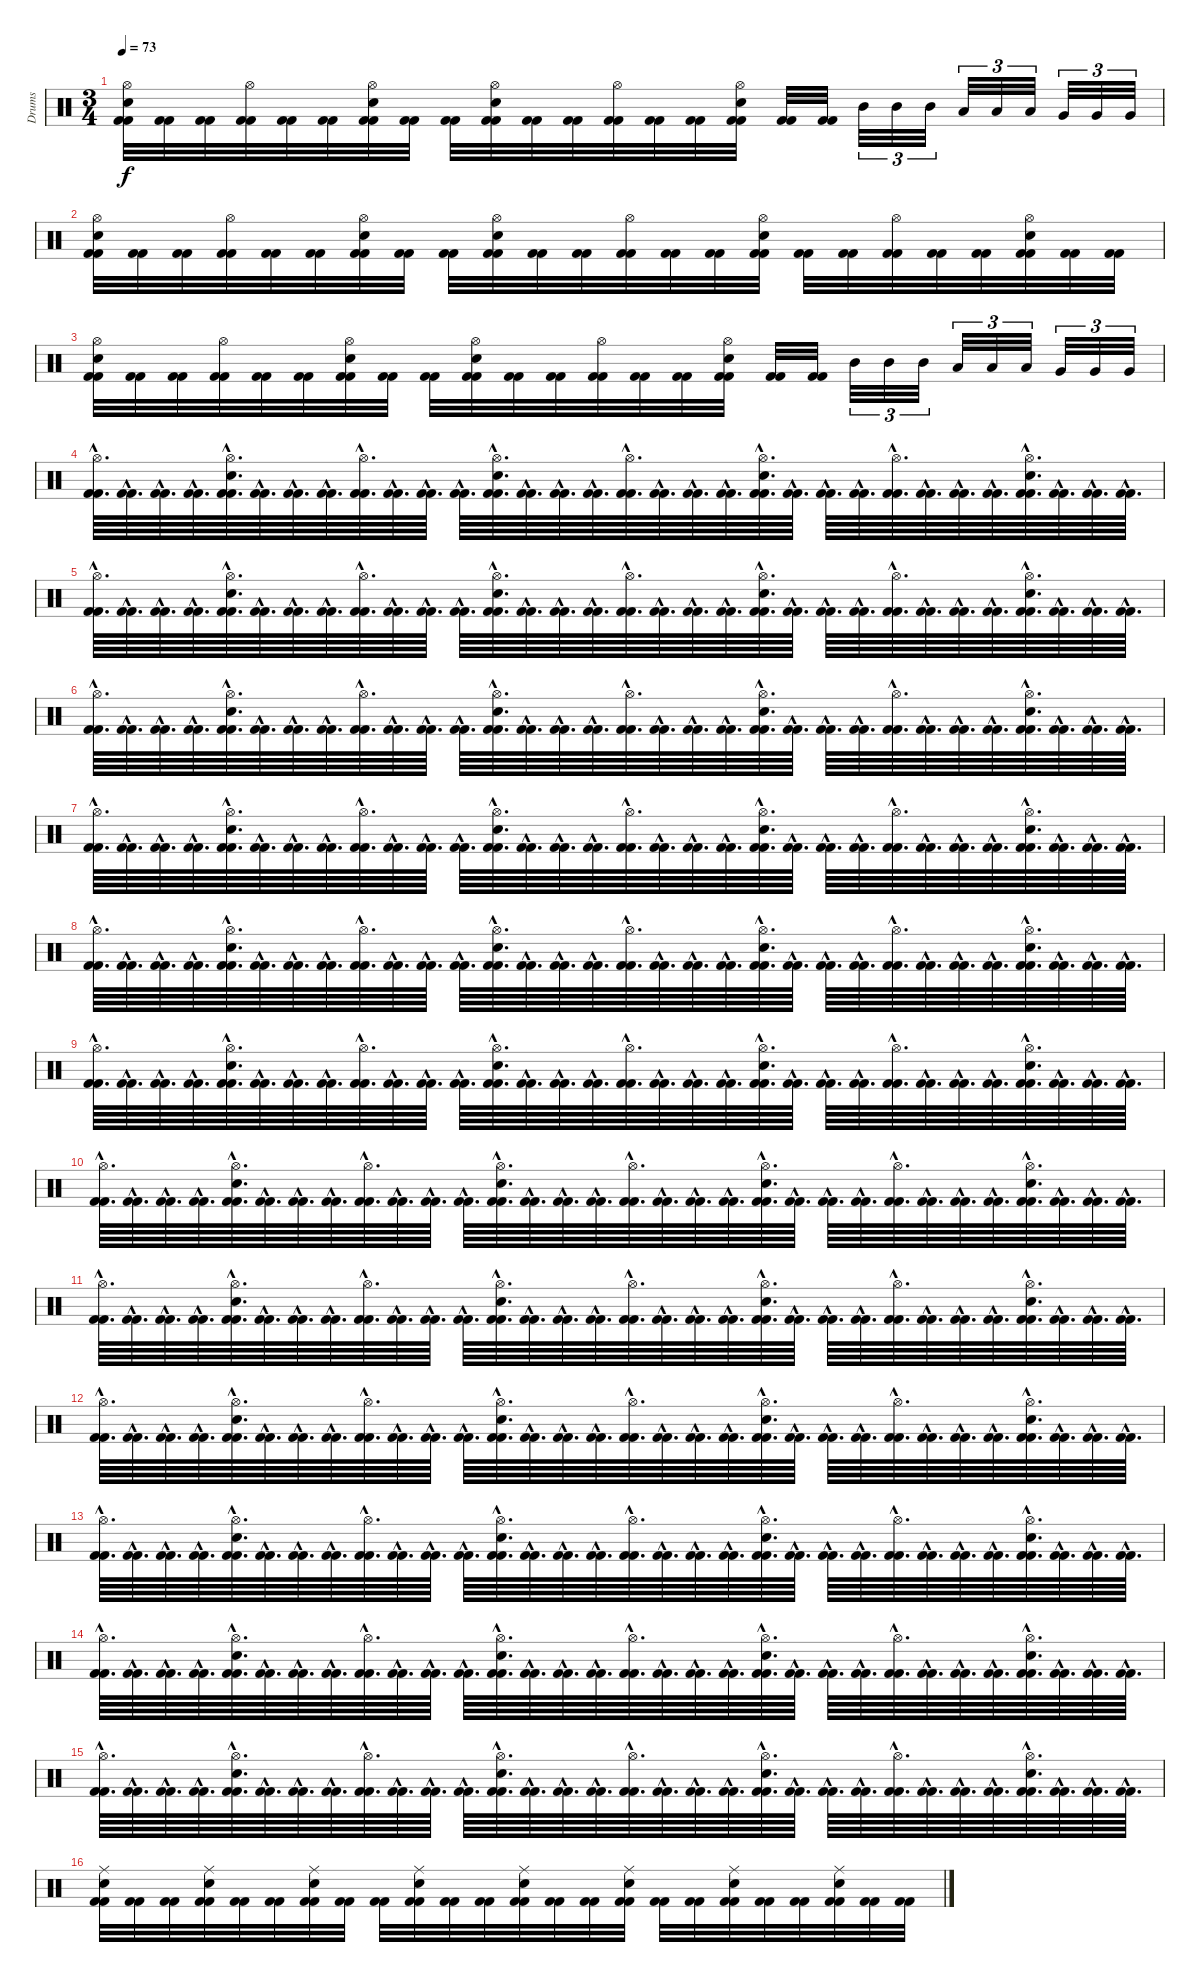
\track ("Drums" "Drums") {instrument percussion}
\staff {score}
\articulation defaults
\ts (3 4)
\tempo 73
\clef neutral
\ks c
("Kick (hit) 2" "Kick (hit) 2" "Electric Snare (hit)" "Hi-Hat (open)").32{dy f} ("Kick (hit) 2" "Kick (hit) 2").32 ("Kick (hit) 2" "Kick (hit) 2").32 ("Kick (hit) 2" "Kick (hit) 2" "Hi-Hat (open)").32 ("Kick (hit) 2" "Kick (hit) 2").32 ("Kick (hit) 2" "Kick (hit) 2").32 ("Kick (hit) 2" "Kick (hit) 2" "Electric Snare (hit)" "Hi-Hat (open)").32 ("Kick (hit) 2" "Kick (hit) 2").32 ("Kick (hit) 2" "Kick (hit) 2").32 ("Kick (hit) 2" "Kick (hit) 2" "Electric Snare (hit)" "Hi-Hat (open)").32 ("Kick (hit) 2" "Kick (hit) 2").32 ("Kick (hit) 2" "Kick (hit) 2").32 ("Kick (hit) 2" "Kick (hit) 2" "Hi-Hat (open)").32 ("Kick (hit) 2" "Kick (hit) 2").32 ("Kick (hit) 2" "Kick (hit) 2").32 ("Kick (hit) 2" "Kick (hit) 2" "Electric Snare (hit)" "Hi-Hat (open)").32 ("Kick (hit) 2" "Kick (hit) 2").32 ("Kick (hit) 2" "Kick (hit) 2").32 "Mid Tom (hit)".32{tu (3 2)} "Mid Tom (hit)".32{tu (3 2)} "Mid Tom (hit)".32{tu (3 2)} "Low Tom (hit)".32{tu (3 2)} "Low Tom (hit)".32{tu (3 2)} "Low Tom (hit)".32{tu (3 2)} "Very Low Tom (hit)".32{tu (3 2)} "Very Low Tom (hit)".32{tu (3 2)} "Very Low Tom (hit)".32{tu (3 2)} |
("Kick (hit) 2" "Kick (hit) 2" "Electric Snare (hit)" "Hi-Hat (open)").32 ("Kick (hit) 2" "Kick (hit) 2").32 ("Kick (hit) 2" "Kick (hit) 2").32 ("Kick (hit) 2" "Kick (hit) 2" "Hi-Hat (open)").32 ("Kick (hit) 2" "Kick (hit) 2").32 ("Kick (hit) 2" "Kick (hit) 2").32 ("Kick (hit) 2" "Kick (hit) 2" "Electric Snare (hit)" "Hi-Hat (open)").32 ("Kick (hit) 2" "Kick (hit) 2").32 ("Kick (hit) 2" "Kick (hit) 2").32 ("Kick (hit) 2" "Kick (hit) 2" "Electric Snare (hit)" "Hi-Hat (open)").32 ("Kick (hit) 2" "Kick (hit) 2").32 ("Kick (hit) 2" "Kick (hit) 2").32 ("Kick (hit) 2" "Kick (hit) 2" "Hi-Hat (open)").32 ("Kick (hit) 2" "Kick (hit) 2").32 ("Kick (hit) 2" "Kick (hit) 2").32 ("Kick (hit) 2" "Kick (hit) 2" "Electric Snare (hit)" "Hi-Hat (open)").32 ("Kick (hit) 2" "Kick (hit) 2").32 ("Kick (hit) 2" "Kick (hit) 2").32 ("Kick (hit) 2" "Kick (hit) 2" "Hi-Hat (open)").32 ("Kick (hit) 2" "Kick (hit) 2").32 ("Kick (hit) 2" "Kick (hit) 2").32 ("Kick (hit) 2" "Kick (hit) 2" "Electric Snare (hit)" "Hi-Hat (open)").32 ("Kick (hit) 2" "Kick (hit) 2").32 ("Kick (hit) 2" "Kick (hit) 2").32 |
("Kick (hit) 2" "Kick (hit) 2" "Electric Snare (hit)" "Hi-Hat (open)").32 ("Kick (hit) 2" "Kick (hit) 2").32 ("Kick (hit) 2" "Kick (hit) 2").32 ("Kick (hit) 2" "Kick (hit) 2" "Hi-Hat (open)").32 ("Kick (hit) 2" "Kick (hit) 2").32 ("Kick (hit) 2" "Kick (hit) 2").32 ("Kick (hit) 2" "Kick (hit) 2" "Electric Snare (hit)" "Hi-Hat (open)").32 ("Kick (hit) 2" "Kick (hit) 2").32 ("Kick (hit) 2" "Kick (hit) 2").32 ("Kick (hit) 2" "Kick (hit) 2" "Electric Snare (hit)" "Hi-Hat (open)").32 ("Kick (hit) 2" "Kick (hit) 2").32 ("Kick (hit) 2" "Kick (hit) 2").32 ("Kick (hit) 2" "Kick (hit) 2" "Hi-Hat (open)").32 ("Kick (hit) 2" "Kick (hit) 2").32 ("Kick (hit) 2" "Kick (hit) 2").32 ("Kick (hit) 2" "Kick (hit) 2" "Electric Snare (hit)" "Hi-Hat (open)").32 ("Kick (hit) 2" "Kick (hit) 2").32 ("Kick (hit) 2" "Kick (hit) 2").32 "Mid Tom (hit)".32{tu (3 2)} "Mid Tom (hit)".32{tu (3 2)} "Mid Tom (hit)".32{tu (3 2)} "Low Tom (hit)".32{tu (3 2)} "Low Tom (hit)".32{tu (3 2)} "Low Tom (hit)".32{tu (3 2)} "Very Low Tom (hit)".32{tu (3 2)} "Very Low Tom (hit)".32{tu (3 2)} "Very Low Tom (hit)".32{tu (3 2)} |
("Kick (hit) 2"{hac} "Kick (hit) 2"{hac} "Hi-Hat (open)"{hac}).64{d} ("Kick (hit) 2"{hac} "Kick (hit) 2"{hac}).64{d} ("Kick (hit) 2"{hac} "Kick (hit) 2"{hac}).64{d} ("Kick (hit) 2"{hac} "Kick (hit) 2"{hac}).64{d} ("Kick (hit) 2"{hac} "Kick (hit) 2"{hac} "Electric Snare (hit)"{hac} "Hi-Hat (open)"{hac}).64{d} ("Kick (hit) 2"{hac} "Kick (hit) 2"{hac}).64{d} ("Kick (hit) 2"{hac} "Kick (hit) 2"{hac}).64{d} ("Kick (hit) 2"{hac} "Kick (hit) 2"{hac}).64{d} ("Kick (hit) 2"{hac} "Kick (hit) 2"{hac} "Hi-Hat (open)"{hac}).64{d} ("Kick (hit) 2"{hac} "Kick (hit) 2"{hac}).64{d} ("Kick (hit) 2"{hac} "Kick (hit) 2"{hac}).64{d} ("Kick (hit) 2"{hac} "Kick (hit) 2"{hac}).64{d} ("Kick (hit) 2"{hac} "Kick (hit) 2"{hac} "Electric Snare (hit)"{hac} "Hi-Hat (open)"{hac}).64{d} ("Kick (hit) 2"{hac} "Kick (hit) 2"{hac}).64{d} ("Kick (hit) 2"{hac} "Kick (hit) 2"{hac}).64{d} ("Kick (hit) 2"{hac} "Kick (hit) 2"{hac}).64{d} ("Kick (hit) 2"{hac} "Kick (hit) 2"{hac} "Hi-Hat (open)"{hac}).64{d} ("Kick (hit) 2"{hac} "Kick (hit) 2"{hac}).64{d} ("Kick (hit) 2"{hac} "Kick (hit) 2"{hac}).64{d} ("Kick (hit) 2"{hac} "Kick (hit) 2"{hac}).64{d} ("Kick (hit) 2"{hac} "Kick (hit) 2"{hac} "Electric Snare (hit)"{hac} "Hi-Hat (open)"{hac}).64{d} ("Kick (hit) 2"{hac} "Kick (hit) 2"{hac}).64{d} ("Kick (hit) 2"{hac} "Kick (hit) 2"{hac}).64{d} ("Kick (hit) 2"{hac} "Kick (hit) 2"{hac}).64{d} ("Kick (hit) 2"{hac} "Kick (hit) 2"{hac} "Hi-Hat (open)"{hac}).64{d} ("Kick (hit) 2"{hac} "Kick (hit) 2"{hac}).64{d} ("Kick (hit) 2"{hac} "Kick (hit) 2"{hac}).64{d} ("Kick (hit) 2"{hac} "Kick (hit) 2"{hac}).64{d} ("Kick (hit) 2"{hac} "Kick (hit) 2"{hac} "Electric Snare (hit)"{hac} "Hi-Hat (open)"{hac}).64{d} ("Kick (hit) 2"{hac} "Kick (hit) 2"{hac}).64{d} ("Kick (hit) 2"{hac} "Kick (hit) 2"{hac}).64{d} ("Kick (hit) 2"{hac} "Kick (hit) 2"{hac}).64{d} |
("Kick (hit) 2"{hac} "Kick (hit) 2"{hac} "Hi-Hat (open)"{hac}).64{d} ("Kick (hit) 2"{hac} "Kick (hit) 2"{hac}).64{d} ("Kick (hit) 2"{hac} "Kick (hit) 2"{hac}).64{d} ("Kick (hit) 2"{hac} "Kick (hit) 2"{hac}).64{d} ("Kick (hit) 2"{hac} "Kick (hit) 2"{hac} "Electric Snare (hit)"{hac} "Hi-Hat (open)"{hac}).64{d} ("Kick (hit) 2"{hac} "Kick (hit) 2"{hac}).64{d} ("Kick (hit) 2"{hac} "Kick (hit) 2"{hac}).64{d} ("Kick (hit) 2"{hac} "Kick (hit) 2"{hac}).64{d} ("Kick (hit) 2"{hac} "Kick (hit) 2"{hac} "Hi-Hat (open)"{hac}).64{d} ("Kick (hit) 2"{hac} "Kick (hit) 2"{hac}).64{d} ("Kick (hit) 2"{hac} "Kick (hit) 2"{hac}).64{d} ("Kick (hit) 2"{hac} "Kick (hit) 2"{hac}).64{d} ("Kick (hit) 2"{hac} "Kick (hit) 2"{hac} "Electric Snare (hit)"{hac} "Hi-Hat (open)"{hac}).64{d} ("Kick (hit) 2"{hac} "Kick (hit) 2"{hac}).64{d} ("Kick (hit) 2"{hac} "Kick (hit) 2"{hac}).64{d} ("Kick (hit) 2"{hac} "Kick (hit) 2"{hac}).64{d} ("Kick (hit) 2"{hac} "Kick (hit) 2"{hac} "Hi-Hat (open)"{hac}).64{d} ("Kick (hit) 2"{hac} "Kick (hit) 2"{hac}).64{d} ("Kick (hit) 2"{hac} "Kick (hit) 2"{hac}).64{d} ("Kick (hit) 2"{hac} "Kick (hit) 2"{hac}).64{d} ("Kick (hit) 2"{hac} "Kick (hit) 2"{hac} "Electric Snare (hit)"{hac} "Hi-Hat (open)"{hac}).64{d} ("Kick (hit) 2"{hac} "Kick (hit) 2"{hac}).64{d} ("Kick (hit) 2"{hac} "Kick (hit) 2"{hac}).64{d} ("Kick (hit) 2"{hac} "Kick (hit) 2"{hac}).64{d} ("Kick (hit) 2"{hac} "Kick (hit) 2"{hac} "Hi-Hat (open)"{hac}).64{d} ("Kick (hit) 2"{hac} "Kick (hit) 2"{hac}).64{d} ("Kick (hit) 2"{hac} "Kick (hit) 2"{hac}).64{d} ("Kick (hit) 2"{hac} "Kick (hit) 2"{hac}).64{d} ("Kick (hit) 2"{hac} "Kick (hit) 2"{hac} "Electric Snare (hit)"{hac} "Hi-Hat (open)"{hac}).64{d} ("Kick (hit) 2"{hac} "Kick (hit) 2"{hac}).64{d} ("Kick (hit) 2"{hac} "Kick (hit) 2"{hac}).64{d} ("Kick (hit) 2"{hac} "Kick (hit) 2"{hac}).64{d} |
("Kick (hit) 2"{hac} "Kick (hit) 2"{hac} "Hi-Hat (open)"{hac}).64{d} ("Kick (hit) 2"{hac} "Kick (hit) 2"{hac}).64{d} ("Kick (hit) 2"{hac} "Kick (hit) 2"{hac}).64{d} ("Kick (hit) 2"{hac} "Kick (hit) 2"{hac}).64{d} ("Kick (hit) 2"{hac} "Kick (hit) 2"{hac} "Electric Snare (hit)"{hac} "Hi-Hat (open)"{hac}).64{d} ("Kick (hit) 2"{hac} "Kick (hit) 2"{hac}).64{d} ("Kick (hit) 2"{hac} "Kick (hit) 2"{hac}).64{d} ("Kick (hit) 2"{hac} "Kick (hit) 2"{hac}).64{d} ("Kick (hit) 2"{hac} "Kick (hit) 2"{hac} "Hi-Hat (open)"{hac}).64{d} ("Kick (hit) 2"{hac} "Kick (hit) 2"{hac}).64{d} ("Kick (hit) 2"{hac} "Kick (hit) 2"{hac}).64{d} ("Kick (hit) 2"{hac} "Kick (hit) 2"{hac}).64{d} ("Kick (hit) 2"{hac} "Kick (hit) 2"{hac} "Electric Snare (hit)"{hac} "Hi-Hat (open)"{hac}).64{d} ("Kick (hit) 2"{hac} "Kick (hit) 2"{hac}).64{d} ("Kick (hit) 2"{hac} "Kick (hit) 2"{hac}).64{d} ("Kick (hit) 2"{hac} "Kick (hit) 2"{hac}).64{d} ("Kick (hit) 2"{hac} "Kick (hit) 2"{hac} "Hi-Hat (open)"{hac}).64{d} ("Kick (hit) 2"{hac} "Kick (hit) 2"{hac}).64{d} ("Kick (hit) 2"{hac} "Kick (hit) 2"{hac}).64{d} ("Kick (hit) 2"{hac} "Kick (hit) 2"{hac}).64{d} ("Kick (hit) 2"{hac} "Kick (hit) 2"{hac} "Electric Snare (hit)"{hac} "Hi-Hat (open)"{hac}).64{d} ("Kick (hit) 2"{hac} "Kick (hit) 2"{hac}).64{d} ("Kick (hit) 2"{hac} "Kick (hit) 2"{hac}).64{d} ("Kick (hit) 2"{hac} "Kick (hit) 2"{hac}).64{d} ("Kick (hit) 2"{hac} "Kick (hit) 2"{hac} "Hi-Hat (open)"{hac}).64{d} ("Kick (hit) 2"{hac} "Kick (hit) 2"{hac}).64{d} ("Kick (hit) 2"{hac} "Kick (hit) 2"{hac}).64{d} ("Kick (hit) 2"{hac} "Kick (hit) 2"{hac}).64{d} ("Kick (hit) 2"{hac} "Kick (hit) 2"{hac} "Electric Snare (hit)"{hac} "Hi-Hat (open)"{hac}).64{d} ("Kick (hit) 2"{hac} "Kick (hit) 2"{hac}).64{d} ("Kick (hit) 2"{hac} "Kick (hit) 2"{hac}).64{d} ("Kick (hit) 2"{hac} "Kick (hit) 2"{hac}).64{d} |
("Kick (hit) 2"{hac} "Kick (hit) 2"{hac} "Hi-Hat (open)"{hac}).64{d} ("Kick (hit) 2"{hac} "Kick (hit) 2"{hac}).64{d} ("Kick (hit) 2"{hac} "Kick (hit) 2"{hac}).64{d} ("Kick (hit) 2"{hac} "Kick (hit) 2"{hac}).64{d} ("Kick (hit) 2"{hac} "Kick (hit) 2"{hac} "Electric Snare (hit)"{hac} "Hi-Hat (open)"{hac}).64{d} ("Kick (hit) 2"{hac} "Kick (hit) 2"{hac}).64{d} ("Kick (hit) 2"{hac} "Kick (hit) 2"{hac}).64{d} ("Kick (hit) 2"{hac} "Kick (hit) 2"{hac}).64{d} ("Kick (hit) 2"{hac} "Kick (hit) 2"{hac} "Hi-Hat (open)"{hac}).64{d} ("Kick (hit) 2"{hac} "Kick (hit) 2"{hac}).64{d} ("Kick (hit) 2"{hac} "Kick (hit) 2"{hac}).64{d} ("Kick (hit) 2"{hac} "Kick (hit) 2"{hac}).64{d} ("Kick (hit) 2"{hac} "Kick (hit) 2"{hac} "Electric Snare (hit)"{hac} "Hi-Hat (open)"{hac}).64{d} ("Kick (hit) 2"{hac} "Kick (hit) 2"{hac}).64{d} ("Kick (hit) 2"{hac} "Kick (hit) 2"{hac}).64{d} ("Kick (hit) 2"{hac} "Kick (hit) 2"{hac}).64{d} ("Kick (hit) 2"{hac} "Kick (hit) 2"{hac} "Hi-Hat (open)"{hac}).64{d} ("Kick (hit) 2"{hac} "Kick (hit) 2"{hac}).64{d} ("Kick (hit) 2"{hac} "Kick (hit) 2"{hac}).64{d} ("Kick (hit) 2"{hac} "Kick (hit) 2"{hac}).64{d} ("Kick (hit) 2"{hac} "Kick (hit) 2"{hac} "Electric Snare (hit)"{hac} "Hi-Hat (open)"{hac}).64{d} ("Kick (hit) 2"{hac} "Kick (hit) 2"{hac}).64{d} ("Kick (hit) 2"{hac} "Kick (hit) 2"{hac}).64{d} ("Kick (hit) 2"{hac} "Kick (hit) 2"{hac}).64{d} ("Kick (hit) 2"{hac} "Kick (hit) 2"{hac} "Hi-Hat (open)"{hac}).64{d} ("Kick (hit) 2"{hac} "Kick (hit) 2"{hac}).64{d} ("Kick (hit) 2"{hac} "Kick (hit) 2"{hac}).64{d} ("Kick (hit) 2"{hac} "Kick (hit) 2"{hac}).64{d} ("Kick (hit) 2"{hac} "Kick (hit) 2"{hac} "Electric Snare (hit)"{hac} "Hi-Hat (open)"{hac}).64{d} ("Kick (hit) 2"{hac} "Kick (hit) 2"{hac}).64{d} ("Kick (hit) 2"{hac} "Kick (hit) 2"{hac}).64{d} ("Kick (hit) 2"{hac} "Kick (hit) 2"{hac}).64{d} |
("Kick (hit) 2"{hac} "Kick (hit) 2"{hac} "Hi-Hat (open)"{hac}).64{d} ("Kick (hit) 2"{hac} "Kick (hit) 2"{hac}).64{d} ("Kick (hit) 2"{hac} "Kick (hit) 2"{hac}).64{d} ("Kick (hit) 2"{hac} "Kick (hit) 2"{hac}).64{d} ("Kick (hit) 2"{hac} "Kick (hit) 2"{hac} "Electric Snare (hit)"{hac} "Hi-Hat (open)"{hac}).64{d} ("Kick (hit) 2"{hac} "Kick (hit) 2"{hac}).64{d} ("Kick (hit) 2"{hac} "Kick (hit) 2"{hac}).64{d} ("Kick (hit) 2"{hac} "Kick (hit) 2"{hac}).64{d} ("Kick (hit) 2"{hac} "Kick (hit) 2"{hac} "Hi-Hat (open)"{hac}).64{d} ("Kick (hit) 2"{hac} "Kick (hit) 2"{hac}).64{d} ("Kick (hit) 2"{hac} "Kick (hit) 2"{hac}).64{d} ("Kick (hit) 2"{hac} "Kick (hit) 2"{hac}).64{d} ("Kick (hit) 2"{hac} "Kick (hit) 2"{hac} "Electric Snare (hit)"{hac} "Hi-Hat (open)"{hac}).64{d} ("Kick (hit) 2"{hac} "Kick (hit) 2"{hac}).64{d} ("Kick (hit) 2"{hac} "Kick (hit) 2"{hac}).64{d} ("Kick (hit) 2"{hac} "Kick (hit) 2"{hac}).64{d} ("Kick (hit) 2"{hac} "Kick (hit) 2"{hac} "Hi-Hat (open)"{hac}).64{d} ("Kick (hit) 2"{hac} "Kick (hit) 2"{hac}).64{d} ("Kick (hit) 2"{hac} "Kick (hit) 2"{hac}).64{d} ("Kick (hit) 2"{hac} "Kick (hit) 2"{hac}).64{d} ("Kick (hit) 2"{hac} "Kick (hit) 2"{hac} "Electric Snare (hit)"{hac} "Hi-Hat (open)"{hac}).64{d} ("Kick (hit) 2"{hac} "Kick (hit) 2"{hac}).64{d} ("Kick (hit) 2"{hac} "Kick (hit) 2"{hac}).64{d} ("Kick (hit) 2"{hac} "Kick (hit) 2"{hac}).64{d} ("Kick (hit) 2"{hac} "Kick (hit) 2"{hac} "Hi-Hat (open)"{hac}).64{d} ("Kick (hit) 2"{hac} "Kick (hit) 2"{hac}).64{d} ("Kick (hit) 2"{hac} "Kick (hit) 2"{hac}).64{d} ("Kick (hit) 2"{hac} "Kick (hit) 2"{hac}).64{d} ("Kick (hit) 2"{hac} "Kick (hit) 2"{hac} "Electric Snare (hit)"{hac} "Hi-Hat (open)"{hac}).64{d} ("Kick (hit) 2"{hac} "Kick (hit) 2"{hac}).64{d} ("Kick (hit) 2"{hac} "Kick (hit) 2"{hac}).64{d} ("Kick (hit) 2"{hac} "Kick (hit) 2"{hac}).64{d} |
("Kick (hit) 2"{hac} "Kick (hit) 2"{hac} "Hi-Hat (open)"{hac}).64{d} ("Kick (hit) 2"{hac} "Kick (hit) 2"{hac}).64{d} ("Kick (hit) 2"{hac} "Kick (hit) 2"{hac}).64{d} ("Kick (hit) 2"{hac} "Kick (hit) 2"{hac}).64{d} ("Kick (hit) 2"{hac} "Kick (hit) 2"{hac} "Electric Snare (hit)"{hac} "Hi-Hat (open)"{hac}).64{d} ("Kick (hit) 2"{hac} "Kick (hit) 2"{hac}).64{d} ("Kick (hit) 2"{hac} "Kick (hit) 2"{hac}).64{d} ("Kick (hit) 2"{hac} "Kick (hit) 2"{hac}).64{d} ("Kick (hit) 2"{hac} "Kick (hit) 2"{hac} "Hi-Hat (open)"{hac}).64{d} ("Kick (hit) 2"{hac} "Kick (hit) 2"{hac}).64{d} ("Kick (hit) 2"{hac} "Kick (hit) 2"{hac}).64{d} ("Kick (hit) 2"{hac} "Kick (hit) 2"{hac}).64{d} ("Kick (hit) 2"{hac} "Kick (hit) 2"{hac} "Electric Snare (hit)"{hac} "Hi-Hat (open)"{hac}).64{d} ("Kick (hit) 2"{hac} "Kick (hit) 2"{hac}).64{d} ("Kick (hit) 2"{hac} "Kick (hit) 2"{hac}).64{d} ("Kick (hit) 2"{hac} "Kick (hit) 2"{hac}).64{d} ("Kick (hit) 2"{hac} "Kick (hit) 2"{hac} "Hi-Hat (open)"{hac}).64{d} ("Kick (hit) 2"{hac} "Kick (hit) 2"{hac}).64{d} ("Kick (hit) 2"{hac} "Kick (hit) 2"{hac}).64{d} ("Kick (hit) 2"{hac} "Kick (hit) 2"{hac}).64{d} ("Kick (hit) 2"{hac} "Kick (hit) 2"{hac} "Electric Snare (hit)"{hac} "Hi-Hat (open)"{hac}).64{d} ("Kick (hit) 2"{hac} "Kick (hit) 2"{hac}).64{d} ("Kick (hit) 2"{hac} "Kick (hit) 2"{hac}).64{d} ("Kick (hit) 2"{hac} "Kick (hit) 2"{hac}).64{d} ("Kick (hit) 2"{hac} "Kick (hit) 2"{hac} "Hi-Hat (open)"{hac}).64{d} ("Kick (hit) 2"{hac} "Kick (hit) 2"{hac}).64{d} ("Kick (hit) 2"{hac} "Kick (hit) 2"{hac}).64{d} ("Kick (hit) 2"{hac} "Kick (hit) 2"{hac}).64{d} ("Kick (hit) 2"{hac} "Kick (hit) 2"{hac} "Electric Snare (hit)"{hac} "Hi-Hat (open)"{hac}).64{d} ("Kick (hit) 2"{hac} "Kick (hit) 2"{hac}).64{d} ("Kick (hit) 2"{hac} "Kick (hit) 2"{hac}).64{d} ("Kick (hit) 2"{hac} "Kick (hit) 2"{hac}).64{d} |
("Kick (hit) 2"{hac} "Kick (hit) 2"{hac} "Hi-Hat (open)"{hac}).64{d} ("Kick (hit) 2"{hac} "Kick (hit) 2"{hac}).64{d} ("Kick (hit) 2"{hac} "Kick (hit) 2"{hac}).64{d} ("Kick (hit) 2"{hac} "Kick (hit) 2"{hac}).64{d} ("Kick (hit) 2"{hac} "Kick (hit) 2"{hac} "Electric Snare (hit)"{hac} "Hi-Hat (open)"{hac}).64{d} ("Kick (hit) 2"{hac} "Kick (hit) 2"{hac}).64{d} ("Kick (hit) 2"{hac} "Kick (hit) 2"{hac}).64{d} ("Kick (hit) 2"{hac} "Kick (hit) 2"{hac}).64{d} ("Kick (hit) 2"{hac} "Kick (hit) 2"{hac} "Hi-Hat (open)"{hac}).64{d} ("Kick (hit) 2"{hac} "Kick (hit) 2"{hac}).64{d} ("Kick (hit) 2"{hac} "Kick (hit) 2"{hac}).64{d} ("Kick (hit) 2"{hac} "Kick (hit) 2"{hac}).64{d} ("Kick (hit) 2"{hac} "Kick (hit) 2"{hac} "Electric Snare (hit)"{hac} "Hi-Hat (open)"{hac}).64{d} ("Kick (hit) 2"{hac} "Kick (hit) 2"{hac}).64{d} ("Kick (hit) 2"{hac} "Kick (hit) 2"{hac}).64{d} ("Kick (hit) 2"{hac} "Kick (hit) 2"{hac}).64{d} ("Kick (hit) 2"{hac} "Kick (hit) 2"{hac} "Hi-Hat (open)"{hac}).64{d} ("Kick (hit) 2"{hac} "Kick (hit) 2"{hac}).64{d} ("Kick (hit) 2"{hac} "Kick (hit) 2"{hac}).64{d} ("Kick (hit) 2"{hac} "Kick (hit) 2"{hac}).64{d} ("Kick (hit) 2"{hac} "Kick (hit) 2"{hac} "Electric Snare (hit)"{hac} "Hi-Hat (open)"{hac}).64{d} ("Kick (hit) 2"{hac} "Kick (hit) 2"{hac}).64{d} ("Kick (hit) 2"{hac} "Kick (hit) 2"{hac}).64{d} ("Kick (hit) 2"{hac} "Kick (hit) 2"{hac}).64{d} ("Kick (hit) 2"{hac} "Kick (hit) 2"{hac} "Hi-Hat (open)"{hac}).64{d} ("Kick (hit) 2"{hac} "Kick (hit) 2"{hac}).64{d} ("Kick (hit) 2"{hac} "Kick (hit) 2"{hac}).64{d} ("Kick (hit) 2"{hac} "Kick (hit) 2"{hac}).64{d} ("Kick (hit) 2"{hac} "Kick (hit) 2"{hac} "Electric Snare (hit)"{hac} "Hi-Hat (open)"{hac}).64{d} ("Kick (hit) 2"{hac} "Kick (hit) 2"{hac}).64{d} ("Kick (hit) 2"{hac} "Kick (hit) 2"{hac}).64{d} ("Kick (hit) 2"{hac} "Kick (hit) 2"{hac}).64{d} |
("Kick (hit) 2"{hac} "Kick (hit) 2"{hac} "Hi-Hat (open)"{hac}).64{d} ("Kick (hit) 2"{hac} "Kick (hit) 2"{hac}).64{d} ("Kick (hit) 2"{hac} "Kick (hit) 2"{hac}).64{d} ("Kick (hit) 2"{hac} "Kick (hit) 2"{hac}).64{d} ("Kick (hit) 2"{hac} "Kick (hit) 2"{hac} "Electric Snare (hit)"{hac} "Hi-Hat (open)"{hac}).64{d} ("Kick (hit) 2"{hac} "Kick (hit) 2"{hac}).64{d} ("Kick (hit) 2"{hac} "Kick (hit) 2"{hac}).64{d} ("Kick (hit) 2"{hac} "Kick (hit) 2"{hac}).64{d} ("Kick (hit) 2"{hac} "Kick (hit) 2"{hac} "Hi-Hat (open)"{hac}).64{d} ("Kick (hit) 2"{hac} "Kick (hit) 2"{hac}).64{d} ("Kick (hit) 2"{hac} "Kick (hit) 2"{hac}).64{d} ("Kick (hit) 2"{hac} "Kick (hit) 2"{hac}).64{d} ("Kick (hit) 2"{hac} "Kick (hit) 2"{hac} "Electric Snare (hit)"{hac} "Hi-Hat (open)"{hac}).64{d} ("Kick (hit) 2"{hac} "Kick (hit) 2"{hac}).64{d} ("Kick (hit) 2"{hac} "Kick (hit) 2"{hac}).64{d} ("Kick (hit) 2"{hac} "Kick (hit) 2"{hac}).64{d} ("Kick (hit) 2"{hac} "Kick (hit) 2"{hac} "Hi-Hat (open)"{hac}).64{d} ("Kick (hit) 2"{hac} "Kick (hit) 2"{hac}).64{d} ("Kick (hit) 2"{hac} "Kick (hit) 2"{hac}).64{d} ("Kick (hit) 2"{hac} "Kick (hit) 2"{hac}).64{d} ("Kick (hit) 2"{hac} "Kick (hit) 2"{hac} "Electric Snare (hit)"{hac} "Hi-Hat (open)"{hac}).64{d} ("Kick (hit) 2"{hac} "Kick (hit) 2"{hac}).64{d} ("Kick (hit) 2"{hac} "Kick (hit) 2"{hac}).64{d} ("Kick (hit) 2"{hac} "Kick (hit) 2"{hac}).64{d} ("Kick (hit) 2"{hac} "Kick (hit) 2"{hac} "Hi-Hat (open)"{hac}).64{d} ("Kick (hit) 2"{hac} "Kick (hit) 2"{hac}).64{d} ("Kick (hit) 2"{hac} "Kick (hit) 2"{hac}).64{d} ("Kick (hit) 2"{hac} "Kick (hit) 2"{hac}).64{d} ("Kick (hit) 2"{hac} "Kick (hit) 2"{hac} "Electric Snare (hit)"{hac} "Hi-Hat (open)"{hac}).64{d} ("Kick (hit) 2"{hac} "Kick (hit) 2"{hac}).64{d} ("Kick (hit) 2"{hac} "Kick (hit) 2"{hac}).64{d} ("Kick (hit) 2"{hac} "Kick (hit) 2"{hac}).64{d} |
("Kick (hit) 2"{hac} "Kick (hit) 2"{hac} "Hi-Hat (open)"{hac}).64{d} ("Kick (hit) 2"{hac} "Kick (hit) 2"{hac}).64{d} ("Kick (hit) 2"{hac} "Kick (hit) 2"{hac}).64{d} ("Kick (hit) 2"{hac} "Kick (hit) 2"{hac}).64{d} ("Kick (hit) 2"{hac} "Kick (hit) 2"{hac} "Electric Snare (hit)"{hac} "Hi-Hat (open)"{hac}).64{d} ("Kick (hit) 2"{hac} "Kick (hit) 2"{hac}).64{d} ("Kick (hit) 2"{hac} "Kick (hit) 2"{hac}).64{d} ("Kick (hit) 2"{hac} "Kick (hit) 2"{hac}).64{d} ("Kick (hit) 2"{hac} "Kick (hit) 2"{hac} "Hi-Hat (open)"{hac}).64{d} ("Kick (hit) 2"{hac} "Kick (hit) 2"{hac}).64{d} ("Kick (hit) 2"{hac} "Kick (hit) 2"{hac}).64{d} ("Kick (hit) 2"{hac} "Kick (hit) 2"{hac}).64{d} ("Kick (hit) 2"{hac} "Kick (hit) 2"{hac} "Electric Snare (hit)"{hac} "Hi-Hat (open)"{hac}).64{d} ("Kick (hit) 2"{hac} "Kick (hit) 2"{hac}).64{d} ("Kick (hit) 2"{hac} "Kick (hit) 2"{hac}).64{d} ("Kick (hit) 2"{hac} "Kick (hit) 2"{hac}).64{d} ("Kick (hit) 2"{hac} "Kick (hit) 2"{hac} "Hi-Hat (open)"{hac}).64{d} ("Kick (hit) 2"{hac} "Kick (hit) 2"{hac}).64{d} ("Kick (hit) 2"{hac} "Kick (hit) 2"{hac}).64{d} ("Kick (hit) 2"{hac} "Kick (hit) 2"{hac}).64{d} ("Kick (hit) 2"{hac} "Kick (hit) 2"{hac} "Electric Snare (hit)"{hac} "Hi-Hat (open)"{hac}).64{d} ("Kick (hit) 2"{hac} "Kick (hit) 2"{hac}).64{d} ("Kick (hit) 2"{hac} "Kick (hit) 2"{hac}).64{d} ("Kick (hit) 2"{hac} "Kick (hit) 2"{hac}).64{d} ("Kick (hit) 2"{hac} "Kick (hit) 2"{hac} "Hi-Hat (open)"{hac}).64{d} ("Kick (hit) 2"{hac} "Kick (hit) 2"{hac}).64{d} ("Kick (hit) 2"{hac} "Kick (hit) 2"{hac}).64{d} ("Kick (hit) 2"{hac} "Kick (hit) 2"{hac}).64{d} ("Kick (hit) 2"{hac} "Kick (hit) 2"{hac} "Electric Snare (hit)"{hac} "Hi-Hat (open)"{hac}).64{d} ("Kick (hit) 2"{hac} "Kick (hit) 2"{hac}).64{d} ("Kick (hit) 2"{hac} "Kick (hit) 2"{hac}).64{d} ("Kick (hit) 2"{hac} "Kick (hit) 2"{hac}).64{d} |
("Kick (hit) 2"{hac} "Kick (hit) 2"{hac} "Hi-Hat (open)"{hac}).64{d} ("Kick (hit) 2"{hac} "Kick (hit) 2"{hac}).64{d} ("Kick (hit) 2"{hac} "Kick (hit) 2"{hac}).64{d} ("Kick (hit) 2"{hac} "Kick (hit) 2"{hac}).64{d} ("Kick (hit) 2"{hac} "Kick (hit) 2"{hac} "Electric Snare (hit)"{hac} "Hi-Hat (open)"{hac}).64{d} ("Kick (hit) 2"{hac} "Kick (hit) 2"{hac}).64{d} ("Kick (hit) 2"{hac} "Kick (hit) 2"{hac}).64{d} ("Kick (hit) 2"{hac} "Kick (hit) 2"{hac}).64{d} ("Kick (hit) 2"{hac} "Kick (hit) 2"{hac} "Hi-Hat (open)"{hac}).64{d} ("Kick (hit) 2"{hac} "Kick (hit) 2"{hac}).64{d} ("Kick (hit) 2"{hac} "Kick (hit) 2"{hac}).64{d} ("Kick (hit) 2"{hac} "Kick (hit) 2"{hac}).64{d} ("Kick (hit) 2"{hac} "Kick (hit) 2"{hac} "Electric Snare (hit)"{hac} "Hi-Hat (open)"{hac}).64{d} ("Kick (hit) 2"{hac} "Kick (hit) 2"{hac}).64{d} ("Kick (hit) 2"{hac} "Kick (hit) 2"{hac}).64{d} ("Kick (hit) 2"{hac} "Kick (hit) 2"{hac}).64{d} ("Kick (hit) 2"{hac} "Kick (hit) 2"{hac} "Hi-Hat (open)"{hac}).64{d} ("Kick (hit) 2"{hac} "Kick (hit) 2"{hac}).64{d} ("Kick (hit) 2"{hac} "Kick (hit) 2"{hac}).64{d} ("Kick (hit) 2"{hac} "Kick (hit) 2"{hac}).64{d} ("Kick (hit) 2"{hac} "Kick (hit) 2"{hac} "Electric Snare (hit)"{hac} "Hi-Hat (open)"{hac}).64{d} ("Kick (hit) 2"{hac} "Kick (hit) 2"{hac}).64{d} ("Kick (hit) 2"{hac} "Kick (hit) 2"{hac}).64{d} ("Kick (hit) 2"{hac} "Kick (hit) 2"{hac}).64{d} ("Kick (hit) 2"{hac} "Kick (hit) 2"{hac} "Hi-Hat (open)"{hac}).64{d} ("Kick (hit) 2"{hac} "Kick (hit) 2"{hac}).64{d} ("Kick (hit) 2"{hac} "Kick (hit) 2"{hac}).64{d} ("Kick (hit) 2"{hac} "Kick (hit) 2"{hac}).64{d} ("Kick (hit) 2"{hac} "Kick (hit) 2"{hac} "Electric Snare (hit)"{hac} "Hi-Hat (open)"{hac}).64{d} ("Kick (hit) 2"{hac} "Kick (hit) 2"{hac}).64{d} ("Kick (hit) 2"{hac} "Kick (hit) 2"{hac}).64{d} ("Kick (hit) 2"{hac} "Kick (hit) 2"{hac}).64{d} |
("Kick (hit) 2"{hac} "Kick (hit) 2"{hac} "Hi-Hat (open)"{hac}).64{d} ("Kick (hit) 2"{hac} "Kick (hit) 2"{hac}).64{d} ("Kick (hit) 2"{hac} "Kick (hit) 2"{hac}).64{d} ("Kick (hit) 2"{hac} "Kick (hit) 2"{hac}).64{d} ("Kick (hit) 2"{hac} "Kick (hit) 2"{hac} "Electric Snare (hit)"{hac} "Hi-Hat (open)"{hac}).64{d} ("Kick (hit) 2"{hac} "Kick (hit) 2"{hac}).64{d} ("Kick (hit) 2"{hac} "Kick (hit) 2"{hac}).64{d} ("Kick (hit) 2"{hac} "Kick (hit) 2"{hac}).64{d} ("Kick (hit) 2"{hac} "Kick (hit) 2"{hac} "Hi-Hat (open)"{hac}).64{d} ("Kick (hit) 2"{hac} "Kick (hit) 2"{hac}).64{d} ("Kick (hit) 2"{hac} "Kick (hit) 2"{hac}).64{d} ("Kick (hit) 2"{hac} "Kick (hit) 2"{hac}).64{d} ("Kick (hit) 2"{hac} "Kick (hit) 2"{hac} "Electric Snare (hit)"{hac} "Hi-Hat (open)"{hac}).64{d} ("Kick (hit) 2"{hac} "Kick (hit) 2"{hac}).64{d} ("Kick (hit) 2"{hac} "Kick (hit) 2"{hac}).64{d} ("Kick (hit) 2"{hac} "Kick (hit) 2"{hac}).64{d} ("Kick (hit) 2"{hac} "Kick (hit) 2"{hac} "Hi-Hat (open)"{hac}).64{d} ("Kick (hit) 2"{hac} "Kick (hit) 2"{hac}).64{d} ("Kick (hit) 2"{hac} "Kick (hit) 2"{hac}).64{d} ("Kick (hit) 2"{hac} "Kick (hit) 2"{hac}).64{d} ("Kick (hit) 2"{hac} "Kick (hit) 2"{hac} "Electric Snare (hit)"{hac} "Hi-Hat (open)"{hac}).64{d} ("Kick (hit) 2"{hac} "Kick (hit) 2"{hac}).64{d} ("Kick (hit) 2"{hac} "Kick (hit) 2"{hac}).64{d} ("Kick (hit) 2"{hac} "Kick (hit) 2"{hac}).64{d} ("Kick (hit) 2"{hac} "Kick (hit) 2"{hac} "Hi-Hat (open)"{hac}).64{d} ("Kick (hit) 2"{hac} "Kick (hit) 2"{hac}).64{d} ("Kick (hit) 2"{hac} "Kick (hit) 2"{hac}).64{d} ("Kick (hit) 2"{hac} "Kick (hit) 2"{hac}).64{d} ("Kick (hit) 2"{hac} "Kick (hit) 2"{hac} "Electric Snare (hit)"{hac} "Hi-Hat (open)"{hac}).64{d} ("Kick (hit) 2"{hac} "Kick (hit) 2"{hac}).64{d} ("Kick (hit) 2"{hac} "Kick (hit) 2"{hac}).64{d} ("Kick (hit) 2"{hac} "Kick (hit) 2"{hac}).64{d} |
("Kick (hit) 2"{hac} "Kick (hit) 2"{hac} "Hi-Hat (open)"{hac}).64{d} ("Kick (hit) 2"{hac} "Kick (hit) 2"{hac}).64{d} ("Kick (hit) 2"{hac} "Kick (hit) 2"{hac}).64{d} ("Kick (hit) 2"{hac} "Kick (hit) 2"{hac}).64{d} ("Kick (hit) 2"{hac} "Kick (hit) 2"{hac} "Electric Snare (hit)"{hac} "Hi-Hat (open)"{hac}).64{d} ("Kick (hit) 2"{hac} "Kick (hit) 2"{hac}).64{d} ("Kick (hit) 2"{hac} "Kick (hit) 2"{hac}).64{d} ("Kick (hit) 2"{hac} "Kick (hit) 2"{hac}).64{d} ("Kick (hit) 2"{hac} "Kick (hit) 2"{hac} "Hi-Hat (open)"{hac}).64{d} ("Kick (hit) 2"{hac} "Kick (hit) 2"{hac}).64{d} ("Kick (hit) 2"{hac} "Kick (hit) 2"{hac}).64{d} ("Kick (hit) 2"{hac} "Kick (hit) 2"{hac}).64{d} ("Kick (hit) 2"{hac} "Kick (hit) 2"{hac} "Electric Snare (hit)"{hac} "Hi-Hat (open)"{hac}).64{d} ("Kick (hit) 2"{hac} "Kick (hit) 2"{hac}).64{d} ("Kick (hit) 2"{hac} "Kick (hit) 2"{hac}).64{d} ("Kick (hit) 2"{hac} "Kick (hit) 2"{hac}).64{d} ("Kick (hit) 2"{hac} "Kick (hit) 2"{hac} "Hi-Hat (open)"{hac}).64{d} ("Kick (hit) 2"{hac} "Kick (hit) 2"{hac}).64{d} ("Kick (hit) 2"{hac} "Kick (hit) 2"{hac}).64{d} ("Kick (hit) 2"{hac} "Kick (hit) 2"{hac}).64{d} ("Kick (hit) 2"{hac} "Kick (hit) 2"{hac} "Electric Snare (hit)"{hac} "Hi-Hat (open)"{hac}).64{d} ("Kick (hit) 2"{hac} "Kick (hit) 2"{hac}).64{d} ("Kick (hit) 2"{hac} "Kick (hit) 2"{hac}).64{d} ("Kick (hit) 2"{hac} "Kick (hit) 2"{hac}).64{d} ("Kick (hit) 2"{hac} "Kick (hit) 2"{hac} "Hi-Hat (open)"{hac}).64{d} ("Kick (hit) 2"{hac} "Kick (hit) 2"{hac}).64{d} ("Kick (hit) 2"{hac} "Kick (hit) 2"{hac}).64{d} ("Kick (hit) 2"{hac} "Kick (hit) 2"{hac}).64{d} ("Kick (hit) 2"{hac} "Kick (hit) 2"{hac} "Electric Snare (hit)"{hac} "Hi-Hat (open)"{hac}).64{d} ("Kick (hit) 2"{hac} "Kick (hit) 2"{hac}).64{d} ("Kick (hit) 2"{hac} "Kick (hit) 2"{hac}).64{d} ("Kick (hit) 2"{hac} "Kick (hit) 2"{hac}).64{d} |
("Kick (hit) 2" "Kick (hit) 2" "Electric Snare (hit)" "Ride (middle)").32 ("Kick (hit) 2" "Kick (hit) 2").32 ("Kick (hit) 2" "Kick (hit) 2").32 ("Kick (hit) 2" "Kick (hit) 2" "Electric Snare (hit)" "Ride (middle)").32 ("Kick (hit) 2" "Kick (hit) 2").32 ("Kick (hit) 2" "Kick (hit) 2").32 ("Kick (hit) 2" "Kick (hit) 2" "Electric Snare (hit)" "Ride (middle)").32 ("Kick (hit) 2" "Kick (hit) 2").32 ("Kick (hit) 2" "Kick (hit) 2").32 ("Kick (hit) 2" "Kick (hit) 2" "Electric Snare (hit)" "Ride (middle)").32 ("Kick (hit) 2" "Kick (hit) 2").32 ("Kick (hit) 2" "Kick (hit) 2").32 ("Kick (hit) 2" "Kick (hit) 2" "Electric Snare (hit)" "Ride (middle)").32 ("Kick (hit) 2" "Kick (hit) 2").32 ("Kick (hit) 2" "Kick (hit) 2").32 ("Kick (hit) 2" "Kick (hit) 2" "Electric Snare (hit)" "Ride (middle)").32 ("Kick (hit) 2" "Kick (hit) 2").32 ("Kick (hit) 2" "Kick (hit) 2").32 ("Kick (hit) 2" "Kick (hit) 2" "Electric Snare (hit)" "Ride (middle)").32 ("Kick (hit) 2" "Kick (hit) 2").32 ("Kick (hit) 2" "Kick (hit) 2").32 ("Kick (hit) 2" "Kick (hit) 2" "Electric Snare (hit)" "Ride (middle)").32 ("Kick (hit) 2" "Kick (hit) 2").32 ("Kick (hit) 2" "Kick (hit) 2").32
